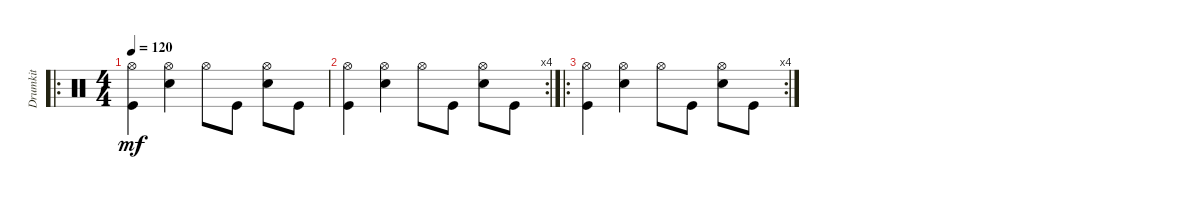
\track ("Drumkit" "Drumkit") {instrument percussion}
\staff {score}
\articulation defaults
\ro
\ts (4 4)
\tempo 120
\clef neutral
\ks c
("Kick (hit)" "Hi-Hat (open)").4{dy mf} ("Hi-Hat (open)" "Snare (hit) 2").4 "Hi-Hat (open)".8 "Kick (hit)".8 ("Hi-Hat (open)" "Snare (hit) 2").8 "Kick (hit)".8 |
\rc 4
("Kick (hit)" "Hi-Hat (open)").4 ("Hi-Hat (open)" "Snare (hit) 2").4 "Hi-Hat (open)".8 "Kick (hit)".8 ("Hi-Hat (open)" "Snare (hit) 2").8 "Kick (hit)".8 |
\ro
\rc 4
("Kick (hit)" "Hi-Hat (open)").4 ("Hi-Hat (open)" "Snare (hit) 2").4 "Hi-Hat (open)".8 "Kick (hit)".8 ("Hi-Hat (open)" "Snare (hit) 2").8 "Kick (hit)".8
